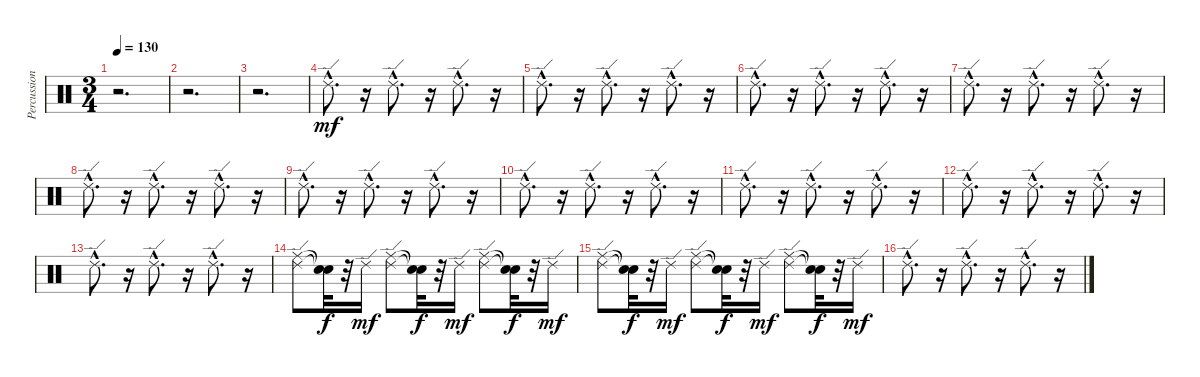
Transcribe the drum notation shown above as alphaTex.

\track ("Percussion (Channel 10)" "Percussion") {instrument percussion}
\staff {score}
\articulation defaults
\ts (3 4)
\tempo 130
\clef neutral
\ks c
r.2{d dy f} |
r.2{d} |
r.2{d} |
"Ride (edge) 2"{hac}.8{d dy mf} r.16 "Ride (edge) 2"{hac}.8{d} r.16 "Ride (edge) 2"{hac}.8{d} r.16 |
"Ride (edge) 2"{hac}.8{d} r.16 "Ride (edge) 2"{hac}.8{d} r.16 "Ride (edge) 2"{hac}.8{d} r.16 |
"Ride (edge) 2"{hac}.8{d} r.16 "Ride (edge) 2"{hac}.8{d} r.16 "Ride (edge) 2"{hac}.8{d} r.16 |
"Ride (edge) 2"{hac}.8{d} r.16 "Ride (edge) 2"{hac}.8{d} r.16 "Ride (edge) 2"{hac}.8{d} r.16 |
"Ride (edge) 2"{hac}.8{d} r.16 "Ride (edge) 2"{hac}.8{d} r.16 "Ride (edge) 2"{hac}.8{d} r.16 |
"Ride (edge) 2"{hac}.8{d} r.16 "Ride (edge) 2"{hac}.8{d} r.16 "Ride (edge) 2"{hac}.8{d} r.16 |
"Ride (edge) 2"{hac}.8{d} r.16 "Ride (edge) 2"{hac}.8{d} r.16 "Ride (edge) 2"{hac}.8{d} r.16 |
"Ride (edge) 2"{hac}.8{d} r.16 "Ride (edge) 2"{hac}.8{d} r.16 "Ride (edge) 2"{hac}.8{d} r.16 |
"Ride (edge) 2"{hac}.8{d} r.16 "Ride (edge) 2"{hac}.8{d} r.16 "Ride (edge) 2"{hac}.8{d} r.16 |
"Ride (edge) 2"{hac}.8{d} r.16 "Ride (edge) 2"{hac}.8{d} r.16 "Ride (edge) 2"{hac}.8{d} r.16 |
("Ride (middle)" "Ride (edge) 2").8 ("Snare (hit)"{t} "Snare (hit)"{t}).32{dy f} r.32 "Ride (edge) 2".16{dy mf} ("Ride (middle)" "Ride (edge) 2").8 ("Snare (hit)"{t} "Snare (hit)"{t}).32{dy f} r.32 "Ride (edge) 2".16{dy mf} ("Ride (middle)" "Ride (edge) 2").8 ("Snare (hit)"{t} "Snare (hit)"{t}).32{dy f} r.32 "Ride (edge) 2".16{dy mf} |
("Ride (middle)" "Ride (edge) 2").8 ("Snare (hit)"{t} "Snare (hit)"{t}).32{dy f} r.32 "Ride (edge) 2".16{dy mf} ("Ride (middle)" "Ride (edge) 2").8 ("Snare (hit)"{t} "Snare (hit)"{t}).32{dy f} r.32 "Ride (edge) 2".16{dy mf} ("Ride (middle)" "Ride (edge) 2").8 ("Snare (hit)"{t} "Snare (hit)"{t}).32{dy f} r.32 "Ride (edge) 2".16{dy mf} |
"Ride (edge) 2"{hac}.8{d} r.16 "Ride (edge) 2"{hac}.8{d} r.16 "Ride (edge) 2"{hac}.8{d} r.16
